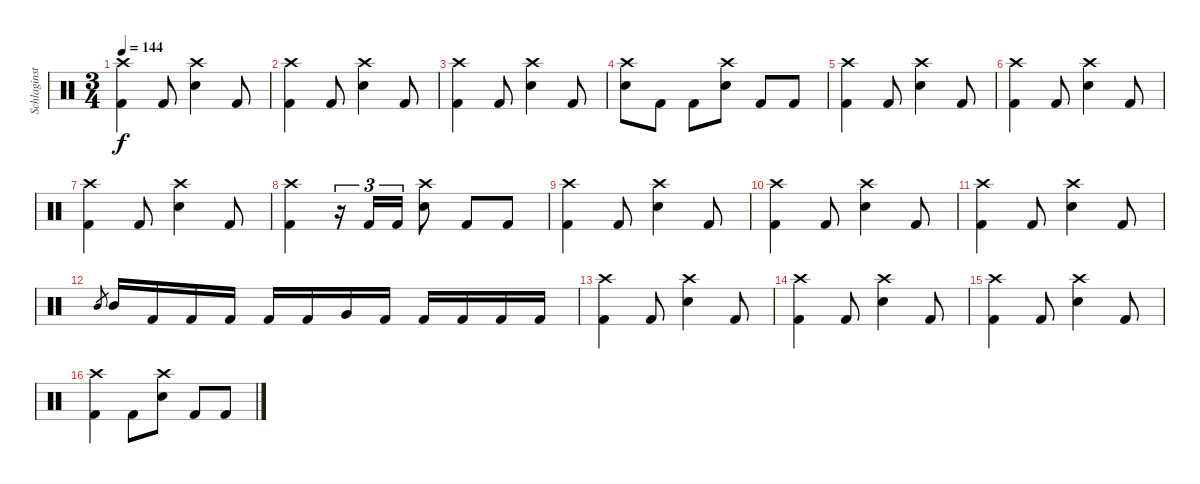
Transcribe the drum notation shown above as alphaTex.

\track ("Schlaginstrumente - Auswahl" "Schlaginst") {instrument percussion}
\staff {score}
\articulation defaults
\ts (3 4)
\tempo 144
\clef neutral
\ks c
("Crash high (hit)" "Kick (hit) 2").4{dy f} "Kick (hit) 2".8 ("Crash high (hit)" "Snare (hit) 2").4 "Kick (hit) 2".8 |
("Crash high (hit)" "Kick (hit) 2").4 "Kick (hit) 2".8 ("Crash high (hit)" "Snare (hit) 2").4 "Kick (hit) 2".8 |
("Crash high (hit)" "Kick (hit) 2").4 "Kick (hit) 2".8 ("Crash high (hit)" "Snare (hit) 2").4 "Kick (hit) 2".8 |
("Crash high (hit)" "Snare (hit) 2").8 "Kick (hit) 2".8 "Kick (hit) 2".8 ("Crash high (hit)" "Snare (hit) 2").8 "Kick (hit) 2".8 "Kick (hit) 2".8 |
("Crash high (hit)" "Kick (hit) 2").4 "Kick (hit) 2".8 ("Crash high (hit)" "Snare (hit) 2").4 "Kick (hit) 2".8 |
("Crash high (hit)" "Kick (hit) 2").4 "Kick (hit) 2".8 ("Crash high (hit)" "Snare (hit) 2").4 "Kick (hit) 2".8 |
("Crash high (hit)" "Kick (hit) 2").4 "Kick (hit) 2".8 ("Crash high (hit)" "Snare (hit) 2").4 "Kick (hit) 2".8 |
("Crash high (hit)" "Kick (hit) 2").4 r.16{tu (3 2)} "Kick (hit) 2".16{tu (3 2)} "Kick (hit) 2".16{tu (3 2)} ("Crash high (hit)" "Snare (hit) 2").8 "Kick (hit) 2".8 "Kick (hit) 2".8 |
("Crash high (hit)" "Kick (hit) 2").4 "Kick (hit) 2".8 ("Crash high (hit)" "Snare (hit) 2").4 "Kick (hit) 2".8 |
("Crash high (hit)" "Kick (hit) 2").4 "Kick (hit) 2".8 ("Crash high (hit)" "Snare (hit) 2").4 "Kick (hit) 2".8 |
("Crash high (hit)" "Kick (hit) 2").4 "Kick (hit) 2".8 ("Crash high (hit)" "Snare (hit) 2").4 "Kick (hit) 2".8 |
"Mid Tom (hit)".8{gr} "Mid Tom (hit)".16 "Kick (hit) 2".16 "Kick (hit) 2".16 "Kick (hit) 2".16 "Kick (hit) 2".16 "Kick (hit) 2".16 "Very Low Tom (hit)".16 "Kick (hit) 2".16 "Kick (hit) 2".16 "Kick (hit) 2".16 "Kick (hit) 2".16 "Kick (hit) 2".16 |
("Crash high (hit)" "Kick (hit) 2").4 "Kick (hit) 2".8 ("Crash high (hit)" "Snare (hit) 2").4 "Kick (hit) 2".8 |
("Crash high (hit)" "Kick (hit) 2").4 "Kick (hit) 2".8 ("Crash high (hit)" "Snare (hit) 2").4 "Kick (hit) 2".8 |
("Crash high (hit)" "Kick (hit) 2").4 "Kick (hit) 2".8 ("Crash high (hit)" "Snare (hit) 2").4 "Kick (hit) 2".8 |
("Crash high (hit)" "Kick (hit) 2").4 "Kick (hit) 2".8 ("Crash high (hit)" "Snare (hit) 2").8 "Kick (hit) 2".8 "Kick (hit) 2".8
